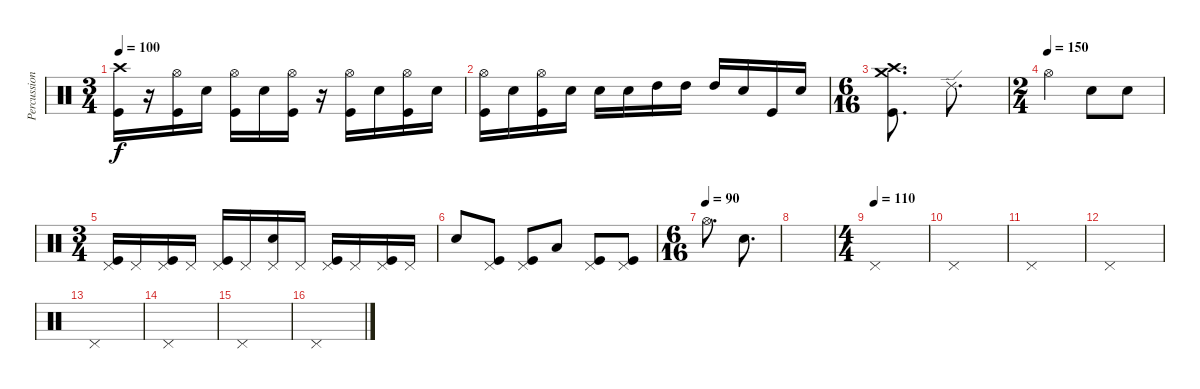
\track ("Percussion" "Percussion") {instrument percussion}
\staff {score}
\articulation defaults
\ts (3 4)
\tempo 100
\clef neutral
\ks c
("Kick (hit)" "Crash high (hit)").16{dy f} r.16 ("Kick (hit)" "Hi-Hat (open)").16 "Electric Snare (hit)".16 ("Kick (hit)" "Hi-Hat (open)").16 "Electric Snare (hit)".16 ("Kick (hit)" "Hi-Hat (open)").16 r.16 ("Kick (hit)" "Hi-Hat (open)").16 "Electric Snare (hit)".16 ("Kick (hit)" "Hi-Hat (open)").16 "Electric Snare (hit)".16 |
("Kick (hit)" "Hi-Hat (open)").16 "Electric Snare (hit)".16 ("Kick (hit)" "Hi-Hat (open)").16 "Electric Snare (hit)".16 "Electric Snare (hit)".16 "Electric Snare (hit)".16 "High Tom (hit)".16 "High Tom (hit)".16 "High Tom (hit)".16 "Electric Snare (hit)".16 "Kick (hit)".16 "Electric Snare (hit)".16 |
\ts (6 16)
("Kick (hit)" "Crash high (hit)" "Crash medium (hit)").8{d} "Ride (edge) 2".8{d} |
\ts (2 4)
\tempo (150)
"Hi-Hat (open)".4 "Electric Snare (hit)".8 "Electric Snare (hit)".8 |
\ts (3 4)
("Kick (hit)" "Pedal Hi-Hat (hit)").16 "Pedal Hi-Hat (hit)".16 ("Kick (hit)" "Pedal Hi-Hat (hit)").16 "Pedal Hi-Hat (hit)".16 ("Kick (hit)" "Pedal Hi-Hat (hit)").16 "Pedal Hi-Hat (hit)".16 ("Electric Snare (hit)" "Pedal Hi-Hat (hit)").16 "Pedal Hi-Hat (hit)".16 ("Kick (hit)" "Pedal Hi-Hat (hit)").16 "Pedal Hi-Hat (hit)".16 ("Kick (hit)" "Pedal Hi-Hat (hit)").16 "Pedal Hi-Hat (hit)".16 |
"Electric Snare (hit)".8 ("Kick (hit)" "Pedal Hi-Hat (hit)").8 ("Kick (hit)" "Pedal Hi-Hat (hit)").8 "Low Tom (hit)".8 ("Kick (hit)" "Pedal Hi-Hat (hit)").8 ("Kick (hit)" "Pedal Hi-Hat (hit)").8 |
\ts (6 16)
\tempo (90)
"Hi-Hat (open)".8{d} "Electric Snare (hit)".8{d} |
|
\ts (4 4)
\tempo (110)
"Pedal Hi-Hat (hit)".1 |
"Pedal Hi-Hat (hit)".1 |
"Pedal Hi-Hat (hit)".1 |
"Pedal Hi-Hat (hit)".1 |
"Pedal Hi-Hat (hit)".1 |
"Pedal Hi-Hat (hit)".1 |
"Pedal Hi-Hat (hit)".1 |
"Pedal Hi-Hat (hit)".1
